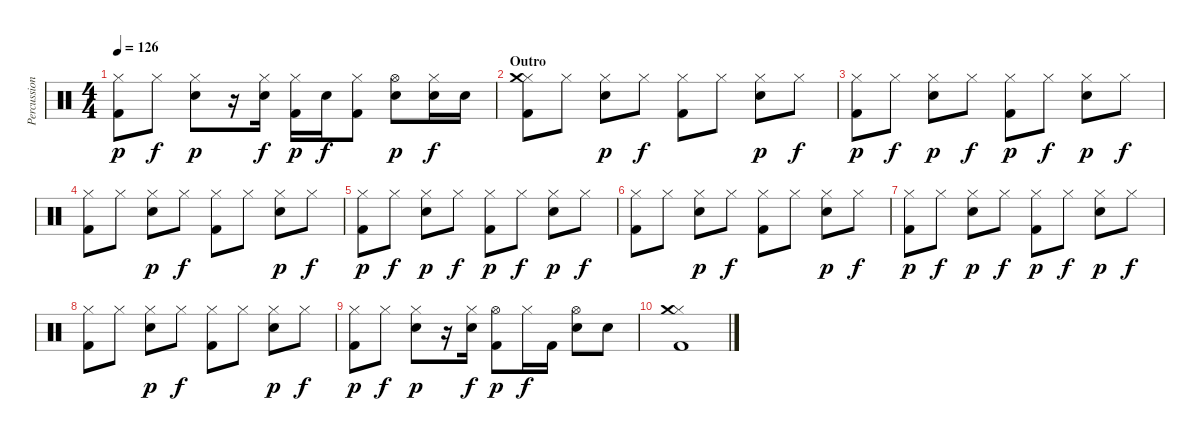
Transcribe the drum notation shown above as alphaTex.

\track ("Percussion" "Percussion") {instrument percussion}
\staff {score}
\articulation defaults
\ts (4 4)
\tempo 126
\clef neutral
\ks c
("Hi-Hat (closed)" "Kick (hit) 2").8{dy p} "Hi-Hat (closed)".8{dy f} ("Hi-Hat (closed)" "Snare (hit) 2").8{dy p} r.16 ("Hi-Hat (closed)" "Snare (hit) 2").16{dy f} ("Hi-Hat (closed)" "Kick (hit) 2").16{dy p} "Snare (hit) 2".16{dy f} ("Hi-Hat (closed)" "Kick (hit) 2").8 ("Hi-Hat (open)" "Snare (hit) 2").8{dy p} ("Hi-Hat (closed)" "Snare (hit) 2").16{dy f} "Snare (hit) 2".16 |
\section ("" "Outro")
("Hi-Hat (closed)" "Crash medium (hit)" "Kick (hit) 2").8 "Hi-Hat (closed)".8 ("Hi-Hat (closed)" "Snare (hit) 2").8{dy p} "Hi-Hat (closed)".8{dy f} ("Hi-Hat (closed)" "Kick (hit) 2").8 "Hi-Hat (closed)".8 ("Hi-Hat (closed)" "Snare (hit) 2").8{dy p} "Hi-Hat (closed)".8{dy f} |
("Hi-Hat (closed)" "Kick (hit) 2").8{dy p} "Hi-Hat (closed)".8{dy f} ("Hi-Hat (closed)" "Snare (hit) 2").8{dy p} "Hi-Hat (closed)".8{dy f} ("Hi-Hat (closed)" "Kick (hit) 2").8{dy p} "Hi-Hat (closed)".8{dy f} ("Hi-Hat (closed)" "Snare (hit) 2").8{dy p} "Hi-Hat (closed)".8{dy f} |
("Hi-Hat (closed)" "Kick (hit) 2").8 "Hi-Hat (closed)".8 ("Hi-Hat (closed)" "Snare (hit) 2").8{dy p} "Hi-Hat (closed)".8{dy f} ("Hi-Hat (closed)" "Kick (hit) 2").8 "Hi-Hat (closed)".8 ("Hi-Hat (closed)" "Snare (hit) 2").8{dy p} "Hi-Hat (closed)".8{dy f} |
("Hi-Hat (closed)" "Kick (hit) 2").8{dy p} "Hi-Hat (closed)".8{dy f} ("Hi-Hat (closed)" "Snare (hit) 2").8{dy p} "Hi-Hat (closed)".8{dy f} ("Hi-Hat (closed)" "Kick (hit) 2").8{dy p} "Hi-Hat (closed)".8{dy f} ("Hi-Hat (closed)" "Snare (hit) 2").8{dy p} "Hi-Hat (closed)".8{dy f} |
("Hi-Hat (closed)" "Kick (hit) 2").8 "Hi-Hat (closed)".8 ("Hi-Hat (closed)" "Snare (hit) 2").8{dy p} "Hi-Hat (closed)".8{dy f} ("Hi-Hat (closed)" "Kick (hit) 2").8 "Hi-Hat (closed)".8 ("Hi-Hat (closed)" "Snare (hit) 2").8{dy p} "Hi-Hat (closed)".8{dy f} |
("Hi-Hat (closed)" "Kick (hit) 2").8{dy p} "Hi-Hat (closed)".8{dy f} ("Hi-Hat (closed)" "Snare (hit) 2").8{dy p} "Hi-Hat (closed)".8{dy f} ("Hi-Hat (closed)" "Kick (hit) 2").8{dy p} "Hi-Hat (closed)".8{dy f} ("Hi-Hat (closed)" "Snare (hit) 2").8{dy p} "Hi-Hat (closed)".8{dy f} |
("Hi-Hat (closed)" "Kick (hit) 2").8 "Hi-Hat (closed)".8 ("Hi-Hat (closed)" "Snare (hit) 2").8{dy p} "Hi-Hat (closed)".8{dy f} ("Hi-Hat (closed)" "Kick (hit) 2").8 "Hi-Hat (closed)".8 ("Hi-Hat (closed)" "Snare (hit) 2").8{dy p} "Hi-Hat (closed)".8{dy f} |
("Hi-Hat (closed)" "Kick (hit) 2").8{dy p} "Hi-Hat (closed)".8{dy f} ("Hi-Hat (closed)" "Snare (hit) 2").8{dy p} r.16 ("Hi-Hat (closed)" "Snare (hit) 2").16{dy f} ("Hi-Hat (open)" "Kick (hit) 2").8{dy p} "Hi-Hat (closed)".16{dy f} "Kick (hit) 2".16 ("Hi-Hat (open)" "Snare (hit) 2").8 "Snare (hit) 2".8 |
("Hi-Hat (closed)" "Crash medium (hit)" "Kick (hit) 2").1
